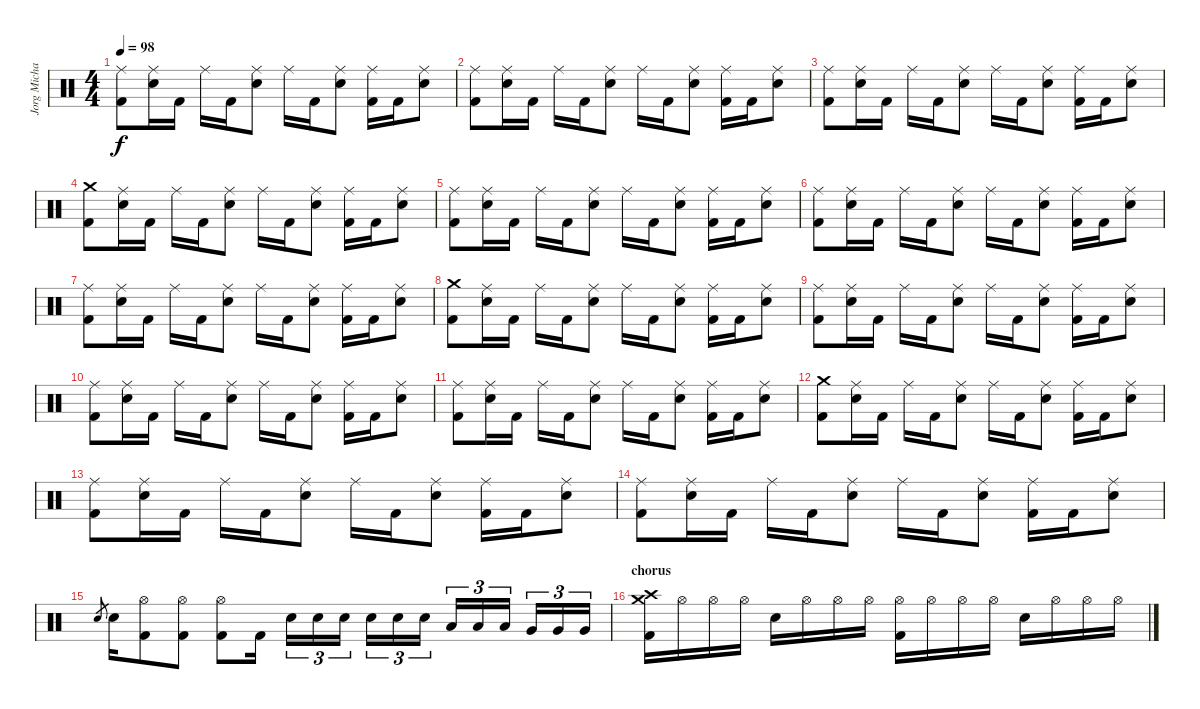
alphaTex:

\track ("Jorg Michael" "Jorg Micha") {instrument percussion}
\staff {score}
\articulation defaults
\ts (4 4)
\tempo 98
\clef neutral
\ks c
("Ride (middle)" "Kick (hit) 2").8{dy f} ("Ride (middle)" "Electric Snare (hit)").16 "Kick (hit) 2".16 "Ride (middle)".16 "Kick (hit) 2".16 ("Ride (middle)" "Electric Snare (hit)").8 "Ride (middle)".16 "Kick (hit) 2".16 ("Ride (middle)" "Electric Snare (hit)").8 ("Ride (middle)" "Kick (hit) 2").16 "Kick (hit) 2".16 ("Ride (middle)" "Electric Snare (hit)").8 |
("Ride (middle)" "Kick (hit) 2").8 ("Ride (middle)" "Electric Snare (hit)").16 "Kick (hit) 2".16 "Ride (middle)".16 "Kick (hit) 2".16 ("Ride (middle)" "Electric Snare (hit)").8 "Ride (middle)".16 "Kick (hit) 2".16 ("Ride (middle)" "Electric Snare (hit)").8 ("Ride (middle)" "Kick (hit) 2").16 "Kick (hit) 2".16 ("Ride (middle)" "Electric Snare (hit)").8 |
("Ride (middle)" "Kick (hit) 2").8 ("Ride (middle)" "Electric Snare (hit)").16 "Kick (hit) 2".16 "Ride (middle)".16 "Kick (hit) 2".16 ("Ride (middle)" "Electric Snare (hit)").8 "Ride (middle)".16 "Kick (hit) 2".16 ("Ride (middle)" "Electric Snare (hit)").8 ("Ride (middle)" "Kick (hit) 2").16 "Kick (hit) 2".16 ("Ride (middle)" "Electric Snare (hit)").8 |
("Crash medium (hit)" "Kick (hit) 2").8 ("Ride (middle)" "Electric Snare (hit)").16 "Kick (hit) 2".16 "Ride (middle)".16 "Kick (hit) 2".16 ("Ride (middle)" "Electric Snare (hit)").8 "Ride (middle)".16 "Kick (hit) 2".16 ("Ride (middle)" "Electric Snare (hit)").8 ("Ride (middle)" "Kick (hit) 2").16 "Kick (hit) 2".16 ("Ride (middle)" "Electric Snare (hit)").8 |
("Ride (middle)" "Kick (hit) 2").8 ("Ride (middle)" "Electric Snare (hit)").16 "Kick (hit) 2".16 "Ride (middle)".16 "Kick (hit) 2".16 ("Ride (middle)" "Electric Snare (hit)").8 "Ride (middle)".16 "Kick (hit) 2".16 ("Ride (middle)" "Electric Snare (hit)").8 ("Ride (middle)" "Kick (hit) 2").16 "Kick (hit) 2".16 ("Ride (middle)" "Electric Snare (hit)").8 |
("Ride (middle)" "Kick (hit) 2").8 ("Ride (middle)" "Electric Snare (hit)").16 "Kick (hit) 2".16 "Ride (middle)".16 "Kick (hit) 2".16 ("Ride (middle)" "Electric Snare (hit)").8 "Ride (middle)".16 "Kick (hit) 2".16 ("Ride (middle)" "Electric Snare (hit)").8 ("Ride (middle)" "Kick (hit) 2").16 "Kick (hit) 2".16 ("Ride (middle)" "Electric Snare (hit)").8 |
("Ride (middle)" "Kick (hit) 2").8 ("Ride (middle)" "Electric Snare (hit)").16 "Kick (hit) 2".16 "Ride (middle)".16 "Kick (hit) 2".16 ("Ride (middle)" "Electric Snare (hit)").8 "Ride (middle)".16 "Kick (hit) 2".16 ("Ride (middle)" "Electric Snare (hit)").8 ("Ride (middle)" "Kick (hit) 2").16 "Kick (hit) 2".16 ("Ride (middle)" "Electric Snare (hit)").8 |
("Crash medium (hit)" "Kick (hit) 2").8 ("Ride (middle)" "Electric Snare (hit)").16 "Kick (hit) 2".16 "Ride (middle)".16 "Kick (hit) 2".16 ("Ride (middle)" "Electric Snare (hit)").8 "Ride (middle)".16 "Kick (hit) 2".16 ("Ride (middle)" "Electric Snare (hit)").8 ("Ride (middle)" "Kick (hit) 2").16 "Kick (hit) 2".16 ("Ride (middle)" "Electric Snare (hit)").8 |
("Ride (middle)" "Kick (hit) 2").8 ("Ride (middle)" "Electric Snare (hit)").16 "Kick (hit) 2".16 "Ride (middle)".16 "Kick (hit) 2".16 ("Ride (middle)" "Electric Snare (hit)").8 "Ride (middle)".16 "Kick (hit) 2".16 ("Ride (middle)" "Electric Snare (hit)").8 ("Ride (middle)" "Kick (hit) 2").16 "Kick (hit) 2".16 ("Ride (middle)" "Electric Snare (hit)").8 |
("Ride (middle)" "Kick (hit) 2").8 ("Ride (middle)" "Electric Snare (hit)").16 "Kick (hit) 2".16 "Ride (middle)".16 "Kick (hit) 2".16 ("Ride (middle)" "Electric Snare (hit)").8 "Ride (middle)".16 "Kick (hit) 2".16 ("Ride (middle)" "Electric Snare (hit)").8 ("Ride (middle)" "Kick (hit) 2").16 "Kick (hit) 2".16 ("Ride (middle)" "Electric Snare (hit)").8 |
("Ride (middle)" "Kick (hit) 2").8 ("Ride (middle)" "Electric Snare (hit)").16 "Kick (hit) 2".16 "Ride (middle)".16 "Kick (hit) 2".16 ("Ride (middle)" "Electric Snare (hit)").8 "Ride (middle)".16 "Kick (hit) 2".16 ("Ride (middle)" "Electric Snare (hit)").8 ("Ride (middle)" "Kick (hit) 2").16 "Kick (hit) 2".16 ("Ride (middle)" "Electric Snare (hit)").8 |
("Crash medium (hit)" "Kick (hit) 2").8 ("Ride (middle)" "Electric Snare (hit)").16 "Kick (hit) 2".16 "Ride (middle)".16 "Kick (hit) 2".16 ("Ride (middle)" "Electric Snare (hit)").8 "Ride (middle)".16 "Kick (hit) 2".16 ("Ride (middle)" "Electric Snare (hit)").8 ("Ride (middle)" "Kick (hit) 2").16 "Kick (hit) 2".16 ("Ride (middle)" "Electric Snare (hit)").8 |
("Ride (middle)" "Kick (hit) 2").8 ("Ride (middle)" "Electric Snare (hit)").16 "Kick (hit) 2".16 "Ride (middle)".16 "Kick (hit) 2".16 ("Ride (middle)" "Electric Snare (hit)").8 "Ride (middle)".16 "Kick (hit) 2".16 ("Ride (middle)" "Electric Snare (hit)").8 ("Ride (middle)" "Kick (hit) 2").16 "Kick (hit) 2".16 ("Ride (middle)" "Electric Snare (hit)").8 |
("Ride (middle)" "Kick (hit) 2").8 ("Ride (middle)" "Electric Snare (hit)").16 "Kick (hit) 2".16 "Ride (middle)".16 "Kick (hit) 2".16 ("Ride (middle)" "Electric Snare (hit)").8 "Ride (middle)".16 "Kick (hit) 2".16 ("Ride (middle)" "Electric Snare (hit)").8 ("Ride (middle)" "Kick (hit) 2").16 "Kick (hit) 2".16 ("Ride (middle)" "Electric Snare (hit)").8 |
"Electric Snare (hit)".8{gr} "Electric Snare (hit)".16 ("Hi-Hat (open)" "Kick (hit) 2").8 ("Hi-Hat (open)" "Kick (hit) 2").8 ("Hi-Hat (open)" "Kick (hit) 2").8 "Kick (hit) 2".16 "Electric Snare (hit)".16{tu (3 2)} "Electric Snare (hit)".16{tu (3 2)} "Electric Snare (hit)".16{tu (3 2)} "Electric Snare (hit)".16{tu (3 2)} "Electric Snare (hit)".16{tu (3 2)} "Electric Snare (hit)".16{tu (3 2)} "Low Tom (hit)".16{tu (3 2)} "Low Tom (hit)".16{tu (3 2)} "Low Tom (hit)".16{tu (3 2)} "Very Low Tom (hit)".16{tu (3 2)} "Very Low Tom (hit)".16{tu (3 2)} "Very Low Tom (hit)".16{tu (3 2)} |
\section ("" "chorus")
("Crash medium (hit)" "Crash high (hit)" "Kick (hit) 2").16 "Hi-Hat (open)".16 "Hi-Hat (open)".16 "Hi-Hat (open)".16 "Electric Snare (hit)".16 "Hi-Hat (open)".16 "Hi-Hat (open)".16 "Hi-Hat (open)".16 ("Hi-Hat (open)" "Kick (hit) 2").16 "Hi-Hat (open)".16 "Hi-Hat (open)".16 "Hi-Hat (open)".16 "Electric Snare (hit)".16 "Hi-Hat (open)".16 "Hi-Hat (open)".16 "Hi-Hat (open)".16
